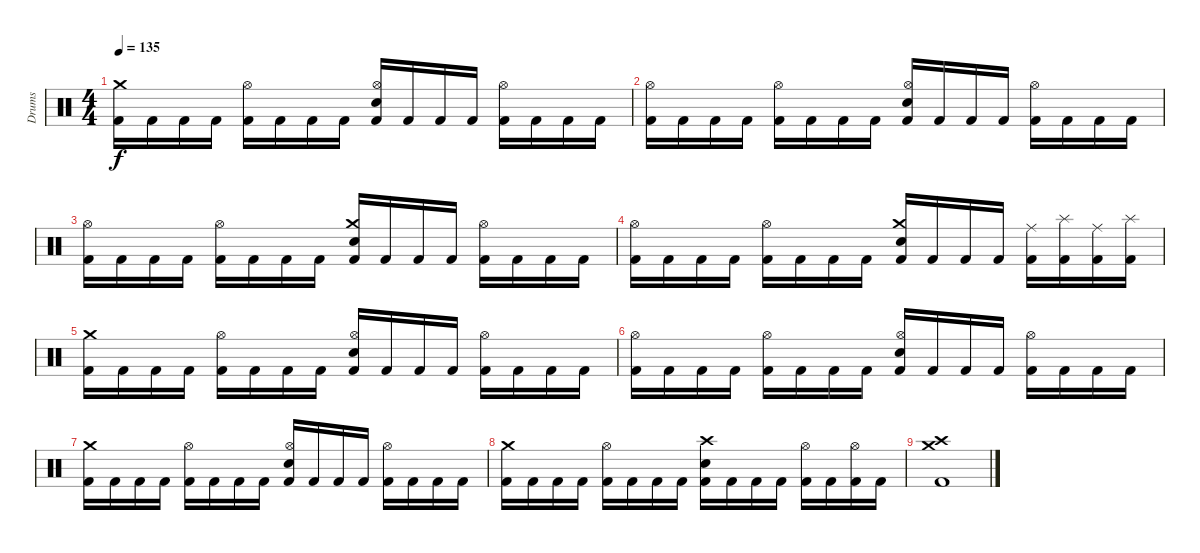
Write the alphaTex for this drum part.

\track ("Drums" "Drums") {instrument percussion}
\staff {score}
\articulation defaults
\ts (4 4)
\tempo 135
\clef neutral
\ks c
("Kick (hit) 2" "Crash medium (hit)").16{dy f} "Kick (hit) 2".16 "Kick (hit) 2".16 "Kick (hit) 2".16 ("Kick (hit) 2" "Hi-Hat (open)").16 "Kick (hit) 2".16 "Kick (hit) 2".16 "Kick (hit) 2".16 ("Kick (hit) 2" "Electric Snare (hit)" "Hi-Hat (open)").16 "Kick (hit) 2".16 "Kick (hit) 2".16 "Kick (hit) 2".16 ("Kick (hit) 2" "Hi-Hat (open)").16 "Kick (hit) 2".16 "Kick (hit) 2".16 "Kick (hit) 2".16 |
("Kick (hit) 2" "Hi-Hat (open)").16 "Kick (hit) 2".16 "Kick (hit) 2".16 "Kick (hit) 2".16 ("Kick (hit) 2" "Hi-Hat (open)").16 "Kick (hit) 2".16 "Kick (hit) 2".16 "Kick (hit) 2".16 ("Kick (hit) 2" "Electric Snare (hit)" "Hi-Hat (open)").16 "Kick (hit) 2".16 "Kick (hit) 2".16 "Kick (hit) 2".16 ("Kick (hit) 2" "Hi-Hat (open)").16 "Kick (hit) 2".16 "Kick (hit) 2".16 "Kick (hit) 2".16 |
("Kick (hit) 2" "Hi-Hat (open)").16 "Kick (hit) 2".16 "Kick (hit) 2".16 "Kick (hit) 2".16 ("Kick (hit) 2" "Hi-Hat (open)").16 "Kick (hit) 2".16 "Kick (hit) 2".16 "Kick (hit) 2".16 ("Kick (hit) 2" "Electric Snare (hit)" "Crash medium (hit)").16 "Kick (hit) 2".16 "Kick (hit) 2".16 "Kick (hit) 2".16 ("Kick (hit) 2" "Hi-Hat (open)").16 "Kick (hit) 2".16 "Kick (hit) 2".16 "Kick (hit) 2".16 |
("Kick (hit) 2" "Hi-Hat (open)").16 "Kick (hit) 2".16 "Kick (hit) 2".16 "Kick (hit) 2".16 ("Kick (hit) 2" "Hi-Hat (open)").16 "Kick (hit) 2".16 "Kick (hit) 2".16 "Kick (hit) 2".16 ("Kick (hit) 2" "Electric Snare (hit)" "Crash medium (hit)").16 "Kick (hit) 2".16 "Kick (hit) 2".16 "Kick (hit) 2".16 ("Kick (hit) 2" "Ride (middle)").16 ("Kick (hit) 2" "Splash (hit)").16 ("Kick (hit) 2" "Ride (middle)").16 ("Kick (hit) 2" "Splash (hit)").16 |
("Kick (hit) 2" "Crash medium (hit)").16 "Kick (hit) 2".16 "Kick (hit) 2".16 "Kick (hit) 2".16 ("Kick (hit) 2" "Hi-Hat (open)").16 "Kick (hit) 2".16 "Kick (hit) 2".16 "Kick (hit) 2".16 ("Kick (hit) 2" "Electric Snare (hit)" "Hi-Hat (open)").16 "Kick (hit) 2".16 "Kick (hit) 2".16 "Kick (hit) 2".16 ("Kick (hit) 2" "Hi-Hat (open)").16 "Kick (hit) 2".16 "Kick (hit) 2".16 "Kick (hit) 2".16 |
("Kick (hit) 2" "Hi-Hat (open)").16 "Kick (hit) 2".16 "Kick (hit) 2".16 "Kick (hit) 2".16 ("Kick (hit) 2" "Hi-Hat (open)").16 "Kick (hit) 2".16 "Kick (hit) 2".16 "Kick (hit) 2".16 ("Kick (hit) 2" "Electric Snare (hit)" "Hi-Hat (open)").16 "Kick (hit) 2".16 "Kick (hit) 2".16 "Kick (hit) 2".16 ("Kick (hit) 2" "Hi-Hat (open)").16 "Kick (hit) 2".16 "Kick (hit) 2".16 "Kick (hit) 2".16 |
("Kick (hit) 2" "Crash medium (hit)").16 "Kick (hit) 2".16 "Kick (hit) 2".16 "Kick (hit) 2".16 ("Kick (hit) 2" "Hi-Hat (open)").16 "Kick (hit) 2".16 "Kick (hit) 2".16 "Kick (hit) 2".16 ("Kick (hit) 2" "Electric Snare (hit)" "Hi-Hat (open)").16 "Kick (hit) 2".16 "Kick (hit) 2".16 "Kick (hit) 2".16 ("Kick (hit) 2" "Hi-Hat (open)").16 "Kick (hit) 2".16 "Kick (hit) 2".16 "Kick (hit) 2".16 |
("Kick (hit) 2" "Crash medium (hit)").16 "Kick (hit) 2".16 "Kick (hit) 2".16 "Kick (hit) 2".16 ("Kick (hit) 2" "Hi-Hat (open)").16 "Kick (hit) 2".16 "Kick (hit) 2".16 "Kick (hit) 2".16 ("Kick (hit) 2" "Electric Snare (hit)" "Crash high (hit)").16 "Kick (hit) 2".16 "Kick (hit) 2".16 "Kick (hit) 2".16 ("Kick (hit) 2" "Hi-Hat (open)").16 "Kick (hit) 2".16 ("Kick (hit) 2" "Hi-Hat (open)").16 "Kick (hit) 2".16 |
("Kick (hit) 2" "Crash high (hit)" "Crash medium (hit)").1
